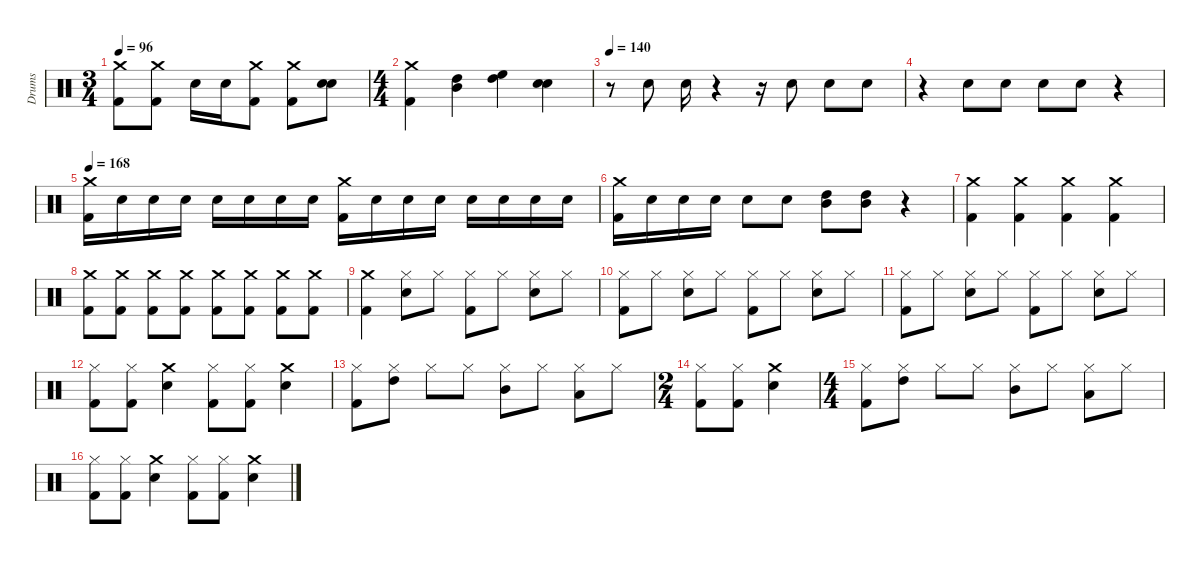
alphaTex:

\defaultSystemsLayout 4
\hideDynamics
\bracketExtendMode nobrackets
\firstSystemTrackNameMode fullname
\otherSystemsTrackNameOrientation horizontal
\track ("Drums" "drm.") {instrument percussion}
\staff {score}
\articulation defaults
\ts (3 4)
\tempo 96
\clef neutral
\ks c
("Kick (hit) 2" "Crash medium (hit)").8{dy fff beam Down} ("Kick (hit) 2" "Crash medium (hit)").8{beam Down} "Snare (hit) 2".16{beam Down} "Snare (hit) 2".16{beam Down} ("Crash medium (hit)" "Kick (hit) 2").8{beam Down} ("Crash medium (hit)" "Kick (hit) 2").8{beam Down} ("Snare (hit) 2" "Snare (hit) 2").8{dy f beam Down} |
\ts (4 4)
\beaming (8 2 2 2 2)
("Kick (hit) 2" "Crash medium (hit)").4{dy fff beam Down} ("Mid Tom (hit)" "High Tom (hit)").4{beam Down} ("High Floor Tom (hit)" "High Tom (hit)").4{beam Down} ("Snare (hit) 2" "Snare (hit) 2").4{dy f beam Down} |
\tempo 140
r.8{beam Down} "Snare (hit) 2".8{dy fff beam Down} "Snare (hit) 2".16{beam Down} r.4{beam Down} r.16{beam Down} "Snare (hit) 2".8{beam Down} "Snare (hit) 2".8{beam Down} "Snare (hit) 2".8{beam Down} |
r.4{beam Down} "Snare (hit) 2".8{beam Down} "Snare (hit) 2".8{beam Down} "Snare (hit) 2".8{beam Down} "Snare (hit) 2".8{beam Down} r.4{beam Down} |
\tempo 168
("Kick (hit) 2" "Crash medium (hit)").16{beam Down} "Snare (hit) 2".16{beam Down} "Snare (hit) 2".16{beam Down} "Snare (hit) 2".16{beam Down} "Snare (hit) 2".16{beam Down} "Snare (hit) 2".16{beam Down} "Snare (hit) 2".16{beam Down} "Snare (hit) 2".16{beam Down} ("Kick (hit) 2" "Crash medium (hit)").16{beam Down} "Snare (hit) 2".16{beam Down} "Snare (hit) 2".16{beam Down} "Snare (hit) 2".16{beam Down} "Snare (hit) 2".16{beam Down} "Snare (hit) 2".16{beam Down} "Snare (hit) 2".16{beam Down} "Snare (hit) 2".16{beam Down} |
("Kick (hit) 2" "Crash medium (hit)").16{beam Down} "Snare (hit) 2".16{beam Down} "Snare (hit) 2".16{beam Down} "Snare (hit) 2".16{beam Down} "Snare (hit) 2".8{beam Down} "Snare (hit) 2".8{beam Down} ("High Tom (hit)" "Mid Tom (hit)").8{beam Down} ("High Tom (hit)" "Mid Tom (hit)").8{beam Down} r.4{beam Down} |
("Crash medium (hit)" "Kick (hit) 2").4{beam Down} ("Crash medium (hit)" "Kick (hit) 2").4{beam Down} ("Crash medium (hit)" "Kick (hit) 2").4{beam Down} ("Crash medium (hit)" "Kick (hit) 2").4{beam Down} |
("Kick (hit) 2" "Crash medium (hit)").8{beam Down} ("Kick (hit) 2" "Crash medium (hit)").8{beam Down} ("Kick (hit) 2" "Crash medium (hit)").8{beam Down} ("Kick (hit) 2" "Crash medium (hit)").8{beam Down} ("Kick (hit) 2" "Crash medium (hit)").8{beam Down} ("Kick (hit) 2" "Crash medium (hit)").8{beam Down} ("Kick (hit) 2" "Crash medium (hit)").8{beam Down} ("Kick (hit) 2" "Crash medium (hit)").8{beam Down} |
("Crash medium (hit)" "Kick (hit) 2").4{beam Down} ("Hi-Hat (closed)" "Snare (hit) 2").8{beam Down} "Hi-Hat (closed)".8{beam Down} ("Kick (hit) 2" "Hi-Hat (closed)").8{beam Down} "Hi-Hat (closed)".8{beam Down} ("Snare (hit) 2" "Hi-Hat (closed)").8{beam Down} "Hi-Hat (closed)".8{beam Down} |
("Kick (hit) 2" "Hi-Hat (closed)").8{beam Down} "Hi-Hat (closed)".8{beam Down} ("Snare (hit) 2" "Hi-Hat (closed)").8{beam Down} "Hi-Hat (closed)".8{beam Down} ("Kick (hit) 2" "Hi-Hat (closed)").8{beam Down} "Hi-Hat (closed)".8{beam Down} ("Snare (hit) 2" "Hi-Hat (closed)").8{beam Down} "Hi-Hat (closed)".8{beam Down} |
("Kick (hit) 2" "Hi-Hat (closed)").8{beam Down} "Hi-Hat (closed)".8{beam Down} ("Snare (hit) 2" "Hi-Hat (closed)").8{beam Down} "Hi-Hat (closed)".8{beam Down} ("Kick (hit) 2" "Hi-Hat (closed)").8{beam Down} "Hi-Hat (closed)".8{beam Down} ("Snare (hit) 2" "Hi-Hat (closed)").8{beam Down} "Hi-Hat (closed)".8{beam Down} |
("Kick (hit) 2" "Hi-Hat (closed)").8{beam Down} ("Kick (hit) 2" "Hi-Hat (closed)").8{beam Down} ("Snare (hit) 2" "Crash medium (hit)").4{beam Down} ("Hi-Hat (closed)" "Kick (hit) 2").8{beam Down} ("Hi-Hat (closed)" "Kick (hit) 2").8{beam Down} ("Crash medium (hit)" "Snare (hit) 2").4{beam Down} |
("Hi-Hat (closed)" "Kick (hit) 2").8{beam Down} ("High Tom (hit)" "Hi-Hat (closed)").8{beam Down} "Hi-Hat (closed)".8{beam Down} "Hi-Hat (closed)".8{beam Down} ("Mid Tom (hit)" "Hi-Hat (closed)").8{beam Down} "Hi-Hat (closed)".8{beam Down} ("Low Tom (hit)" "Hi-Hat (closed)").8{beam Down} "Hi-Hat (closed)".8{beam Down} |
\ts (2 4)
\beaming (8 2 2)
("Kick (hit) 2" "Hi-Hat (closed)").8{beam Down} ("Kick (hit) 2" "Hi-Hat (closed)").8{beam Down} ("Snare (hit) 2" "Crash medium (hit)").4{beam Down} |
\ts (4 4)
\beaming (8 2 2 2 2)
("Hi-Hat (closed)" "Kick (hit) 2").8{beam Down} ("High Tom (hit)" "Hi-Hat (closed)").8{beam Down} "Hi-Hat (closed)".8{beam Down} "Hi-Hat (closed)".8{beam Down} ("Mid Tom (hit)" "Hi-Hat (closed)").8{beam Down} "Hi-Hat (closed)".8{beam Down} ("Low Tom (hit)" "Hi-Hat (closed)").8{beam Down} "Hi-Hat (closed)".8{beam Down} |
("Hi-Hat (closed)" "Kick (hit) 2").8{beam Down} ("Hi-Hat (closed)" "Kick (hit) 2").8{beam Down} ("Snare (hit) 2" "Crash medium (hit)").4{beam Down} ("Kick (hit) 2" "Hi-Hat (closed)").8{beam Down} ("Kick (hit) 2" "Hi-Hat (closed)").8{beam Down} ("Crash medium (hit)" "Snare (hit) 2").4{beam Down}
